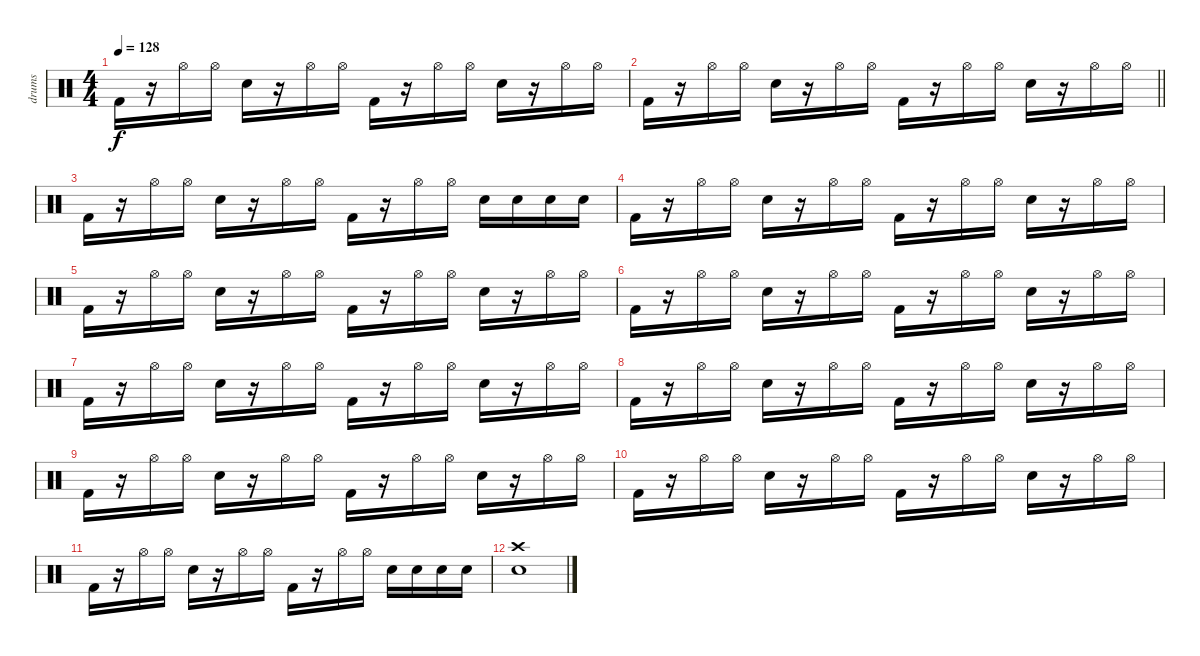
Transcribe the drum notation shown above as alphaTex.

\track ("drums" "drums") {instrument percussion}
\staff {score}
\articulation defaults
\ts (4 4)
\tempo 128
\clef neutral
\ks c "Kick (hit) 2".16{dy f}
r.16 "Hi-Hat (open)".16 "Hi-Hat (open)".16 "Electric Snare (hit)".16 r.16 "Hi-Hat (open)".16 "Hi-Hat (open)".16 "Kick (hit) 2".16 r.16 "Hi-Hat (open)".16 "Hi-Hat (open)".16 "Electric Snare (hit)".16 r.16 "Hi-Hat (open)".16 "Hi-Hat (open)".16 |
\barLineRight lightlight "Kick (hit) 2".16
r.16 "Hi-Hat (open)".16 "Hi-Hat (open)".16 "Electric Snare (hit)".16 r.16 "Hi-Hat (open)".16 "Hi-Hat (open)".16 "Kick (hit) 2".16 r.16 "Hi-Hat (open)".16 "Hi-Hat (open)".16 "Electric Snare (hit)".16 r.16 "Hi-Hat (open)".16 "Hi-Hat (open)".16 |
"Kick (hit) 2".16 r.16 "Hi-Hat (open)".16 "Hi-Hat (open)".16 "Electric Snare (hit)".16 r.16 "Hi-Hat (open)".16 "Hi-Hat (open)".16 "Kick (hit) 2".16 r.16 "Hi-Hat (open)".16 "Hi-Hat (open)".16 "Electric Snare (hit)".16 "Electric Snare (hit)".16 "Electric Snare (hit)".16 "Electric Snare (hit)".16 |
"Kick (hit) 2".16 r.16 "Hi-Hat (open)".16 "Hi-Hat (open)".16 "Electric Snare (hit)".16 r.16 "Hi-Hat (open)".16 "Hi-Hat (open)".16 "Kick (hit) 2".16 r.16 "Hi-Hat (open)".16 "Hi-Hat (open)".16 "Electric Snare (hit)".16 r.16 "Hi-Hat (open)".16 "Hi-Hat (open)".16 |
"Kick (hit) 2".16 r.16 "Hi-Hat (open)".16 "Hi-Hat (open)".16 "Electric Snare (hit)".16 r.16 "Hi-Hat (open)".16 "Hi-Hat (open)".16 "Kick (hit) 2".16 r.16 "Hi-Hat (open)".16 "Hi-Hat (open)".16 "Electric Snare (hit)".16 r.16 "Hi-Hat (open)".16 "Hi-Hat (open)".16 |
"Kick (hit) 2".16 r.16 "Hi-Hat (open)".16 "Hi-Hat (open)".16 "Electric Snare (hit)".16 r.16 "Hi-Hat (open)".16 "Hi-Hat (open)".16 "Kick (hit) 2".16 r.16 "Hi-Hat (open)".16 "Hi-Hat (open)".16 "Electric Snare (hit)".16 r.16 "Hi-Hat (open)".16 "Hi-Hat (open)".16 |
"Kick (hit) 2".16 r.16 "Hi-Hat (open)".16 "Hi-Hat (open)".16 "Electric Snare (hit)".16 r.16 "Hi-Hat (open)".16 "Hi-Hat (open)".16 "Kick (hit) 2".16 r.16 "Hi-Hat (open)".16 "Hi-Hat (open)".16 "Electric Snare (hit)".16 r.16 "Hi-Hat (open)".16 "Hi-Hat (open)".16 |
"Kick (hit) 2".16 r.16 "Hi-Hat (open)".16 "Hi-Hat (open)".16 "Electric Snare (hit)".16 r.16 "Hi-Hat (open)".16 "Hi-Hat (open)".16 "Kick (hit) 2".16 r.16 "Hi-Hat (open)".16 "Hi-Hat (open)".16 "Electric Snare (hit)".16 r.16 "Hi-Hat (open)".16 "Hi-Hat (open)".16 |
"Kick (hit) 2".16 r.16 "Hi-Hat (open)".16 "Hi-Hat (open)".16 "Electric Snare (hit)".16 r.16 "Hi-Hat (open)".16 "Hi-Hat (open)".16 "Kick (hit) 2".16 r.16 "Hi-Hat (open)".16 "Hi-Hat (open)".16 "Electric Snare (hit)".16 r.16 "Hi-Hat (open)".16 "Hi-Hat (open)".16 |
"Kick (hit) 2".16 r.16 "Hi-Hat (open)".16 "Hi-Hat (open)".16 "Electric Snare (hit)".16 r.16 "Hi-Hat (open)".16 "Hi-Hat (open)".16 "Kick (hit) 2".16 r.16 "Hi-Hat (open)".16 "Hi-Hat (open)".16 "Electric Snare (hit)".16 r.16 "Hi-Hat (open)".16 "Hi-Hat (open)".16 |
"Kick (hit) 2".16 r.16 "Hi-Hat (open)".16 "Hi-Hat (open)".16 "Electric Snare (hit)".16 r.16 "Hi-Hat (open)".16 "Hi-Hat (open)".16 "Kick (hit) 2".16 r.16 "Hi-Hat (open)".16 "Hi-Hat (open)".16 "Electric Snare (hit)".16 "Electric Snare (hit)".16 "Electric Snare (hit)".16 "Electric Snare (hit)".16 |
("Electric Snare (hit)" "Crash high (hit)").1
